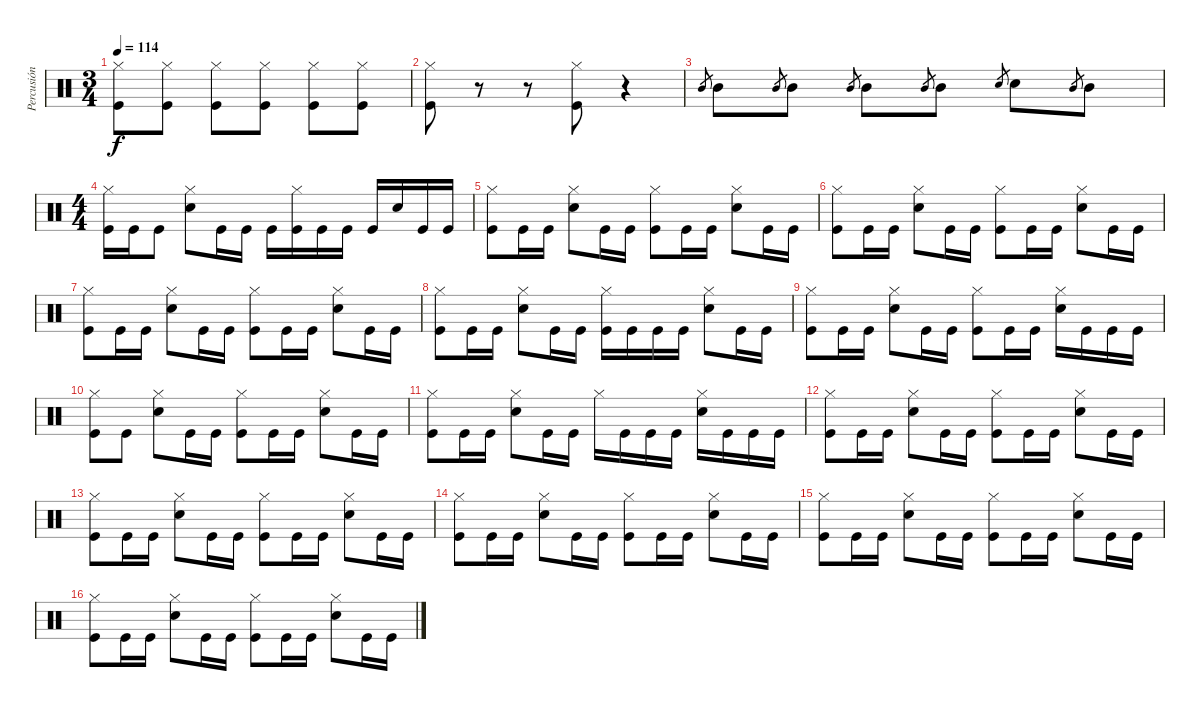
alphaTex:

\track ("Percusión" "Percusión") {instrument percussion}
\staff {score}
\articulation defaults
\ts (3 4)
\tempo 114
\clef neutral
\ks c
("Hi-Hat (closed)" "Kick (hit)").8{dy f} ("Hi-Hat (closed)" "Kick (hit)").8 ("Hi-Hat (closed)" "Kick (hit)").8 ("Hi-Hat (closed)" "Kick (hit)").8 ("Hi-Hat (closed)" "Kick (hit)").8 ("Hi-Hat (closed)" "Kick (hit)").8 |
("Hi-Hat (closed)" "Kick (hit)").8 r.8 r.8 ("Hi-Hat (closed)" "Kick (hit)").8 r.4 |
"Mid Tom (hit)".8{gr} "Mid Tom (hit)".8 "Mid Tom (hit)".8{gr} "Mid Tom (hit)".8 "Mid Tom (hit)".8{gr} "Mid Tom (hit)".8 "Mid Tom (hit)".8{gr} "Mid Tom (hit)".8 "Snare (hit) 2".8{gr} "Snare (hit) 2".8 "Mid Tom (hit)".8{gr} "Mid Tom (hit)".8 |
\ts (4 4)
("Hi-Hat (closed)" "Kick (hit)").16 "Kick (hit)".16 "Kick (hit)".8 ("Hi-Hat (closed)" "Snare (hit) 2").8 "Kick (hit)".16 "Kick (hit)".16 "Kick (hit)".16 ("Hi-Hat (closed)" "Kick (hit)").16 "Kick (hit)".16 "Kick (hit)".16 "Kick (hit)".16 "Snare (hit) 2".16 "Kick (hit)".16 "Kick (hit)".16 |
("Hi-Hat (closed)" "Kick (hit)").8 "Kick (hit)".16 "Kick (hit)".16 ("Hi-Hat (closed)" "Snare (hit) 2").8 "Kick (hit)".16 "Kick (hit)".16 ("Hi-Hat (closed)" "Kick (hit)").8 "Kick (hit)".16 "Kick (hit)".16 ("Hi-Hat (closed)" "Snare (hit) 2").8 "Kick (hit)".16 "Kick (hit)".16 |
("Hi-Hat (closed)" "Kick (hit)").8 "Kick (hit)".16 "Kick (hit)".16 ("Hi-Hat (closed)" "Snare (hit) 2").8 "Kick (hit)".16 "Kick (hit)".16 ("Hi-Hat (closed)" "Kick (hit)").8 "Kick (hit)".16 "Kick (hit)".16 ("Hi-Hat (closed)" "Snare (hit) 2").8 "Kick (hit)".16 "Kick (hit)".16 |
("Hi-Hat (closed)" "Kick (hit)").8 "Kick (hit)".16 "Kick (hit)".16 ("Hi-Hat (closed)" "Snare (hit) 2").8 "Kick (hit)".16 "Kick (hit)".16 ("Hi-Hat (closed)" "Kick (hit)").8 "Kick (hit)".16 "Kick (hit)".16 ("Hi-Hat (closed)" "Snare (hit) 2").8 "Kick (hit)".16 "Kick (hit)".16 |
("Hi-Hat (closed)" "Kick (hit)").8 "Kick (hit)".16 "Kick (hit)".16 ("Hi-Hat (closed)" "Snare (hit) 2").8 "Kick (hit)".16 "Kick (hit)".16 ("Hi-Hat (closed)" "Kick (hit)").16 "Kick (hit)".16 "Kick (hit)".16 "Kick (hit)".16 ("Hi-Hat (closed)" "Snare (hit) 2").8 "Kick (hit)".16 "Kick (hit)".16 |
("Hi-Hat (closed)" "Kick (hit)").8 "Kick (hit)".16 "Kick (hit)".16 ("Hi-Hat (closed)" "Snare (hit) 2").8 "Kick (hit)".16 "Kick (hit)".16 ("Hi-Hat (closed)" "Kick (hit)").8 "Kick (hit)".16 "Kick (hit)".16 ("Hi-Hat (closed)" "Snare (hit) 2").16 "Kick (hit)".16 "Kick (hit)".16 "Kick (hit)".16 |
("Hi-Hat (closed)" "Kick (hit)").8 "Kick (hit)".8 ("Hi-Hat (closed)" "Snare (hit) 2").8 "Kick (hit)".16 "Kick (hit)".16 ("Hi-Hat (closed)" "Kick (hit)").8 "Kick (hit)".16 "Kick (hit)".16 ("Hi-Hat (closed)" "Snare (hit) 2").8 "Kick (hit)".16 "Kick (hit)".16 |
("Hi-Hat (closed)" "Kick (hit)").8 "Kick (hit)".16 "Kick (hit)".16 ("Hi-Hat (closed)" "Snare (hit) 2").8 "Kick (hit)".16 "Kick (hit)".16 "Hi-Hat (closed)".16 "Kick (hit)".16 "Kick (hit)".16 "Kick (hit)".16 ("Hi-Hat (closed)" "Snare (hit) 2").16 "Kick (hit)".16 "Kick (hit)".16 "Kick (hit)".16 |
("Hi-Hat (closed)" "Kick (hit)").8 "Kick (hit)".16 "Kick (hit)".16 ("Hi-Hat (closed)" "Snare (hit) 2").8 "Kick (hit)".16 "Kick (hit)".16 ("Hi-Hat (closed)" "Kick (hit)").8 "Kick (hit)".16 "Kick (hit)".16 ("Hi-Hat (closed)" "Snare (hit) 2").8 "Kick (hit)".16 "Kick (hit)".16 |
("Hi-Hat (closed)" "Kick (hit)").8 "Kick (hit)".16 "Kick (hit)".16 ("Hi-Hat (closed)" "Snare (hit) 2").8 "Kick (hit)".16 "Kick (hit)".16 ("Hi-Hat (closed)" "Kick (hit)").8 "Kick (hit)".16 "Kick (hit)".16 ("Hi-Hat (closed)" "Snare (hit) 2").8 "Kick (hit)".16 "Kick (hit)".16 |
("Hi-Hat (closed)" "Kick (hit)").8 "Kick (hit)".16 "Kick (hit)".16 ("Hi-Hat (closed)" "Snare (hit) 2").8 "Kick (hit)".16 "Kick (hit)".16 ("Hi-Hat (closed)" "Kick (hit)").8 "Kick (hit)".16 "Kick (hit)".16 ("Hi-Hat (closed)" "Snare (hit) 2").8 "Kick (hit)".16 "Kick (hit)".16 |
("Hi-Hat (closed)" "Kick (hit)").8 "Kick (hit)".16 "Kick (hit)".16 ("Hi-Hat (closed)" "Snare (hit) 2").8 "Kick (hit)".16 "Kick (hit)".16 ("Hi-Hat (closed)" "Kick (hit)").8 "Kick (hit)".16 "Kick (hit)".16 ("Hi-Hat (closed)" "Snare (hit) 2").8 "Kick (hit)".16 "Kick (hit)".16 |
("Hi-Hat (closed)" "Kick (hit)").8 "Kick (hit)".16 "Kick (hit)".16 ("Hi-Hat (closed)" "Snare (hit) 2").8 "Kick (hit)".16 "Kick (hit)".16 ("Hi-Hat (closed)" "Kick (hit)").8 "Kick (hit)".16 "Kick (hit)".16 ("Hi-Hat (closed)" "Snare (hit) 2").8 "Kick (hit)".16 "Kick (hit)".16
